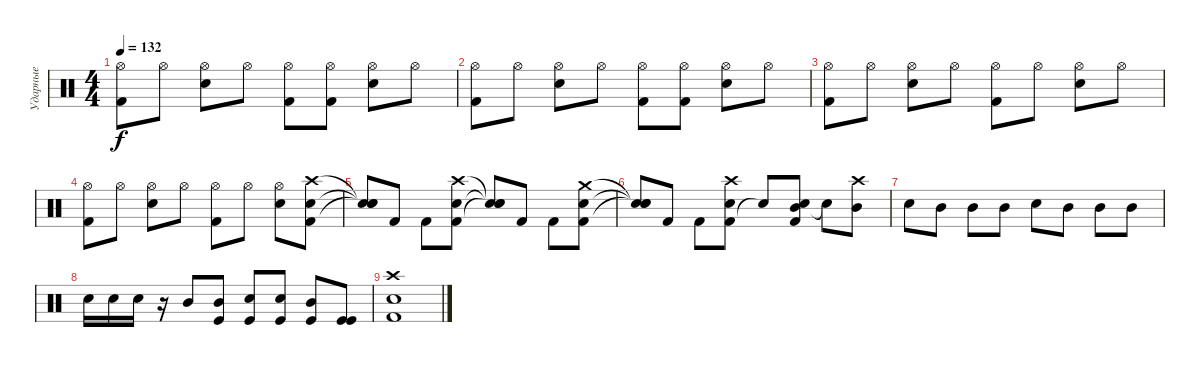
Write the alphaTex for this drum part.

\track ("Ударные" "Ударные") {instrument percussion}
\staff {score}
\articulation defaults
\ts (4 4)
\tempo 132
\clef neutral
\ks c
("Hi-Hat (open)" "Kick (hit) 2").8{dy f} "Hi-Hat (open)".8 ("Hi-Hat (open)" "Electric Snare (hit)").8 "Hi-Hat (open)".8 ("Hi-Hat (open)" "Kick (hit) 2").8 ("Hi-Hat (open)" "Kick (hit) 2").8 ("Hi-Hat (open)" "Electric Snare (hit)").8 "Hi-Hat (open)".8 |
("Hi-Hat (open)" "Kick (hit) 2").8 "Hi-Hat (open)".8 ("Hi-Hat (open)" "Electric Snare (hit)").8 "Hi-Hat (open)".8 ("Hi-Hat (open)" "Kick (hit) 2").8 ("Hi-Hat (open)" "Kick (hit) 2").8 ("Hi-Hat (open)" "Electric Snare (hit)").8 "Hi-Hat (open)".8 |
("Hi-Hat (open)" "Kick (hit) 2").8 "Hi-Hat (open)".8 ("Hi-Hat (open)" "Electric Snare (hit)").8 "Hi-Hat (open)".8 ("Hi-Hat (open)" "Kick (hit) 2").8 "Hi-Hat (open)".8 ("Hi-Hat (open)" "Electric Snare (hit)").8 "Hi-Hat (open)".8 |
("Hi-Hat (open)" "Kick (hit) 2").8 "Hi-Hat (open)".8 ("Hi-Hat (open)" "Electric Snare (hit)").8 "Hi-Hat (open)".8 ("Hi-Hat (open)" "Kick (hit) 2").8 "Hi-Hat (open)".8 ("Hi-Hat (open)" "Electric Snare (hit)").8 ("Kick (hit) 2" "Electric Snare (hit)" "Crash high (hit)").8 |
("Snare (hit)"{t} "Snare (hit)"{t} "Snare (hit)"{t}).8 "Kick (hit) 2".8 "Kick (hit) 2".8 ("Kick (hit) 2" "Crash high (hit)" "Electric Snare (hit)").8 ("Snare (hit)"{t} "Snare (hit)"{t} "Snare (hit)"{t}).8 "Kick (hit) 2".8 "Kick (hit) 2".8 ("Snare (hit) 2" "Kick (hit) 2" "Crash medium (hit)").8 |
("Snare (hit)"{t} "Snare (hit)"{t} "Snare (hit)"{t}).8 "Kick (hit) 2".8 "Kick (hit) 2".8 ("Kick (hit) 2" "Crash high (hit)" "Electric Snare (hit)").8 "Snare (hit)"{t}.8 ("Mid Tom (hit)" "Kick (hit) 2" "Snare (hit) 2").8 "Snare (hit)"{t}.8 ("Crash high (hit)" "Mid Tom (hit)").8 |
"Snare (hit) 2".8 "Mid Tom (hit)".8 "Mid Tom (hit)".8 "Mid Tom (hit)".8 "Electric Snare (hit)".8 "Mid Tom (hit)".8 "Mid Tom (hit)".8 "Mid Tom (hit)".8 |
"Snare (hit) 2".16 "Snare (hit) 2".16 "Snare (hit) 2".16 r.16 "Mid Tom (hit)".8 ("Mid Tom (hit)" "Kick (hit)").8 ("Electric Snare (hit)" "Kick (hit)").8 ("Snare (hit) 2" "Kick (hit)").8 ("Mid Tom (hit)" "Kick (hit)").8 ("Kick (hit)" "Kick (hit)").8 |
("Kick (hit) 2" "Crash high (hit)" "Electric Snare (hit)").1
